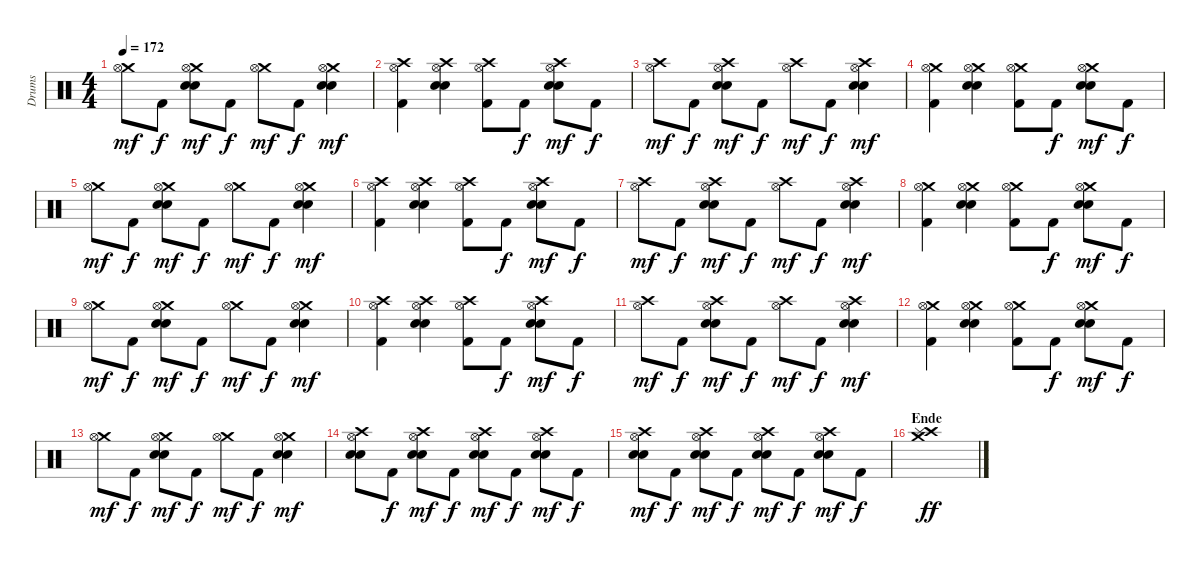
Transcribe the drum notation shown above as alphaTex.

\track ("Drums" "Drums") {instrument percussion}
\staff {score}
\articulation defaults
\ts (4 4)
\tempo 172
\clef neutral
\ks c
("Crash medium (hit)" "Hi-Hat (open)").8{dy mf} "Kick (hit) 2".8{dy f} ("Crash medium (hit)" "Hi-Hat (open)" "Electric Snare (hit)" "Snare (hit) 2").8{dy mf} "Kick (hit) 2".8{dy f} ("Crash medium (hit)" "Hi-Hat (open)").8{dy mf} "Kick (hit) 2".8{dy f} ("Crash medium (hit)" "Hi-Hat (open)" "Electric Snare (hit)" "Snare (hit) 2").4{dy mf} |
("Crash high (hit)" "Hi-Hat (open)" "Kick (hit) 2").4 ("Crash high (hit)" "Hi-Hat (open)" "Electric Snare (hit)" "Snare (hit) 2").4 ("Crash high (hit)" "Hi-Hat (open)" "Kick (hit) 2").8 "Kick (hit) 2".8{dy f} ("Crash high (hit)" "Hi-Hat (open)" "Electric Snare (hit)" "Snare (hit) 2").8{dy mf} "Kick (hit) 2".8{dy f} |
("Crash high (hit)" "Hi-Hat (open)").8{dy mf} "Kick (hit) 2".8{dy f} ("Crash high (hit)" "Hi-Hat (open)" "Electric Snare (hit)" "Snare (hit) 2").8{dy mf} "Kick (hit) 2".8{dy f} ("Crash high (hit)" "Hi-Hat (open)").8{dy mf} "Kick (hit) 2".8{dy f} ("Crash high (hit)" "Hi-Hat (open)" "Electric Snare (hit)" "Snare (hit) 2").4{dy mf} |
("Crash medium (hit)" "Hi-Hat (open)" "Kick (hit) 2").4 ("Crash medium (hit)" "Hi-Hat (open)" "Electric Snare (hit)" "Snare (hit) 2").4 ("Crash medium (hit)" "Hi-Hat (open)" "Kick (hit) 2").8 "Kick (hit) 2".8{dy f} ("Crash medium (hit)" "Hi-Hat (open)" "Electric Snare (hit)" "Snare (hit) 2").8{dy mf} "Kick (hit) 2".8{dy f} |
("Crash medium (hit)" "Hi-Hat (open)").8{dy mf} "Kick (hit) 2".8{dy f} ("Crash medium (hit)" "Hi-Hat (open)" "Electric Snare (hit)" "Snare (hit) 2").8{dy mf} "Kick (hit) 2".8{dy f} ("Crash medium (hit)" "Hi-Hat (open)").8{dy mf} "Kick (hit) 2".8{dy f} ("Crash medium (hit)" "Hi-Hat (open)" "Electric Snare (hit)" "Snare (hit) 2").4{dy mf} |
("Crash high (hit)" "Hi-Hat (open)" "Kick (hit) 2").4 ("Crash high (hit)" "Hi-Hat (open)" "Electric Snare (hit)" "Snare (hit) 2").4 ("Crash high (hit)" "Hi-Hat (open)" "Kick (hit) 2").8 "Kick (hit) 2".8{dy f} ("Crash high (hit)" "Hi-Hat (open)" "Electric Snare (hit)" "Snare (hit) 2").8{dy mf} "Kick (hit) 2".8{dy f} |
("Crash high (hit)" "Hi-Hat (open)").8{dy mf} "Kick (hit) 2".8{dy f} ("Crash high (hit)" "Hi-Hat (open)" "Electric Snare (hit)" "Snare (hit) 2").8{dy mf} "Kick (hit) 2".8{dy f} ("Crash high (hit)" "Hi-Hat (open)").8{dy mf} "Kick (hit) 2".8{dy f} ("Crash high (hit)" "Hi-Hat (open)" "Electric Snare (hit)" "Snare (hit) 2").4{dy mf} |
("Crash medium (hit)" "Hi-Hat (open)" "Kick (hit) 2").4 ("Crash medium (hit)" "Hi-Hat (open)" "Electric Snare (hit)" "Snare (hit) 2").4 ("Crash medium (hit)" "Hi-Hat (open)" "Kick (hit) 2").8 "Kick (hit) 2".8{dy f} ("Crash medium (hit)" "Hi-Hat (open)" "Electric Snare (hit)" "Snare (hit) 2").8{dy mf} "Kick (hit) 2".8{dy f} |
("Crash medium (hit)" "Hi-Hat (open)").8{dy mf} "Kick (hit) 2".8{dy f} ("Crash medium (hit)" "Hi-Hat (open)" "Electric Snare (hit)" "Snare (hit) 2").8{dy mf} "Kick (hit) 2".8{dy f} ("Crash medium (hit)" "Hi-Hat (open)").8{dy mf} "Kick (hit) 2".8{dy f} ("Crash medium (hit)" "Hi-Hat (open)" "Electric Snare (hit)" "Snare (hit) 2").4{dy mf} |
("Crash high (hit)" "Hi-Hat (open)" "Kick (hit) 2").4 ("Crash high (hit)" "Hi-Hat (open)" "Electric Snare (hit)" "Snare (hit) 2").4 ("Crash high (hit)" "Hi-Hat (open)" "Kick (hit) 2").8 "Kick (hit) 2".8{dy f} ("Crash high (hit)" "Hi-Hat (open)" "Electric Snare (hit)" "Snare (hit) 2").8{dy mf} "Kick (hit) 2".8{dy f} |
("Crash high (hit)" "Hi-Hat (open)").8{dy mf} "Kick (hit) 2".8{dy f} ("Crash high (hit)" "Hi-Hat (open)" "Electric Snare (hit)" "Snare (hit) 2").8{dy mf} "Kick (hit) 2".8{dy f} ("Crash high (hit)" "Hi-Hat (open)").8{dy mf} "Kick (hit) 2".8{dy f} ("Crash high (hit)" "Hi-Hat (open)" "Electric Snare (hit)" "Snare (hit) 2").4{dy mf} |
("Crash medium (hit)" "Hi-Hat (open)" "Kick (hit) 2").4 ("Crash medium (hit)" "Hi-Hat (open)" "Electric Snare (hit)" "Snare (hit) 2").4 ("Crash medium (hit)" "Hi-Hat (open)" "Kick (hit) 2").8 "Kick (hit) 2".8{dy f} ("Crash medium (hit)" "Hi-Hat (open)" "Electric Snare (hit)" "Snare (hit) 2").8{dy mf} "Kick (hit) 2".8{dy f} |
("Crash medium (hit)" "Hi-Hat (open)").8{dy mf} "Kick (hit) 2".8{dy f} ("Crash medium (hit)" "Hi-Hat (open)" "Electric Snare (hit)" "Snare (hit) 2").8{dy mf} "Kick (hit) 2".8{dy f} ("Crash medium (hit)" "Hi-Hat (open)").8{dy mf} "Kick (hit) 2".8{dy f} ("Crash medium (hit)" "Hi-Hat (open)" "Electric Snare (hit)" "Snare (hit) 2").4{dy mf} |
("Crash high (hit)" "Hi-Hat (open)" "Electric Snare (hit)" "Snare (hit) 2").8 "Kick (hit) 2".8{dy f} ("Crash high (hit)" "Hi-Hat (open)" "Electric Snare (hit)" "Snare (hit) 2").8{dy mf} "Kick (hit) 2".8{dy f} ("Crash high (hit)" "Hi-Hat (open)" "Electric Snare (hit)" "Snare (hit) 2").8{dy mf} "Kick (hit) 2".8{dy f} ("Crash high (hit)" "Hi-Hat (open)" "Electric Snare (hit)" "Snare (hit) 2").8{dy mf} "Kick (hit) 2".8{dy f} |
("Crash high (hit)" "Hi-Hat (open)" "Electric Snare (hit)" "Snare (hit) 2").8{dy mf} "Kick (hit) 2".8{dy f} ("Crash high (hit)" "Hi-Hat (open)" "Electric Snare (hit)" "Snare (hit) 2").8{dy mf} "Kick (hit) 2".8{dy f} ("Crash high (hit)" "Hi-Hat (open)" "Electric Snare (hit)" "Snare (hit) 2").8{dy mf} "Kick (hit) 2".8{dy f} ("Crash high (hit)" "Hi-Hat (open)" "Electric Snare (hit)" "Snare (hit) 2").8{dy mf} "Kick (hit) 2".8{dy f} |
\section ("" "Ende")
("Crash high (hit)" "Crash medium (hit)" "Splash (hit)").1{dy ff}
